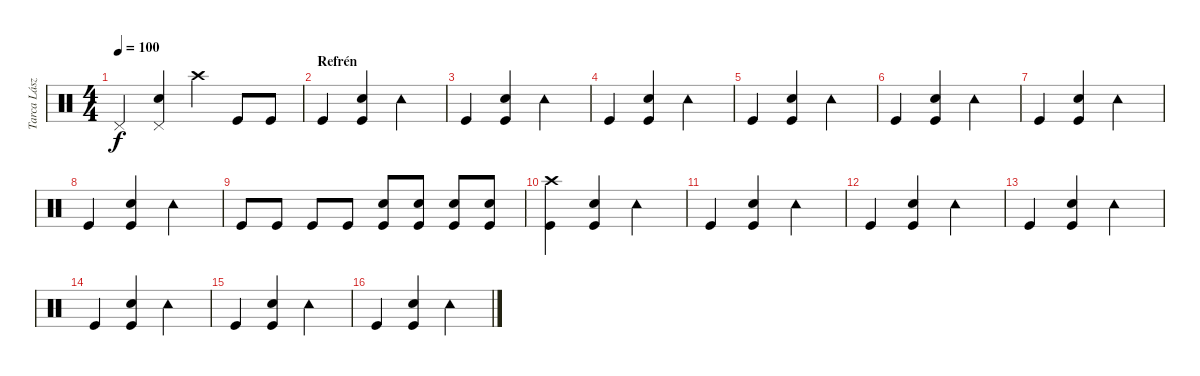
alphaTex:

\track ("Tarca László" "Tarca Lász") {instrument percussion}
\staff {score}
\articulation defaults
\ts (4 4)
\tempo 100
\clef neutral
\ks c "Pedal Hi-Hat (hit)".4{dy f}
("Snare (hit) 2" "Pedal Hi-Hat (hit)").4 "Crash high (hit)".4 "Kick (hit)".8 "Kick (hit)".8 |
\section ("" "Refrén")
"Kick (hit)".4 ("Snare (hit) 2" "Kick (hit)").4 "Tambourine (hit)".2 |
"Kick (hit)".4 ("Snare (hit) 2" "Kick (hit)").4 "Tambourine (hit)".2 |
"Kick (hit)".4 ("Snare (hit) 2" "Kick (hit)").4 "Tambourine (hit)".2 |
"Kick (hit)".4 ("Snare (hit) 2" "Kick (hit)").4 "Tambourine (hit)".2 |
"Kick (hit)".4 ("Snare (hit) 2" "Kick (hit)").4 "Tambourine (hit)".2 |
"Kick (hit)".4 ("Snare (hit) 2" "Kick (hit)").4 "Tambourine (hit)".2 |
"Kick (hit)".4 ("Snare (hit) 2" "Kick (hit)").4 "Tambourine (hit)".2 |
"Kick (hit)".8 "Kick (hit)".8 "Kick (hit)".8 "Kick (hit)".8 ("Snare (hit) 2" "Kick (hit)").8 ("Snare (hit) 2" "Kick (hit)").8 ("Snare (hit) 2" "Kick (hit)").8 ("Snare (hit) 2" "Kick (hit)").8 |
("Crash high (hit)" "Kick (hit)").4 ("Snare (hit) 2" "Kick (hit)").4 "Tambourine (hit)".2 |
"Kick (hit)".4 ("Snare (hit) 2" "Kick (hit)").4 "Tambourine (hit)".2 |
"Kick (hit)".4 ("Snare (hit) 2" "Kick (hit)").4 "Tambourine (hit)".2 |
"Kick (hit)".4 ("Snare (hit) 2" "Kick (hit)").4 "Tambourine (hit)".2 |
"Kick (hit)".4 ("Snare (hit) 2" "Kick (hit)").4 "Tambourine (hit)".2 |
"Kick (hit)".4 ("Snare (hit) 2" "Kick (hit)").4 "Tambourine (hit)".2 |
"Kick (hit)".4 ("Snare (hit) 2" "Kick (hit)").4 "Tambourine (hit)".2
